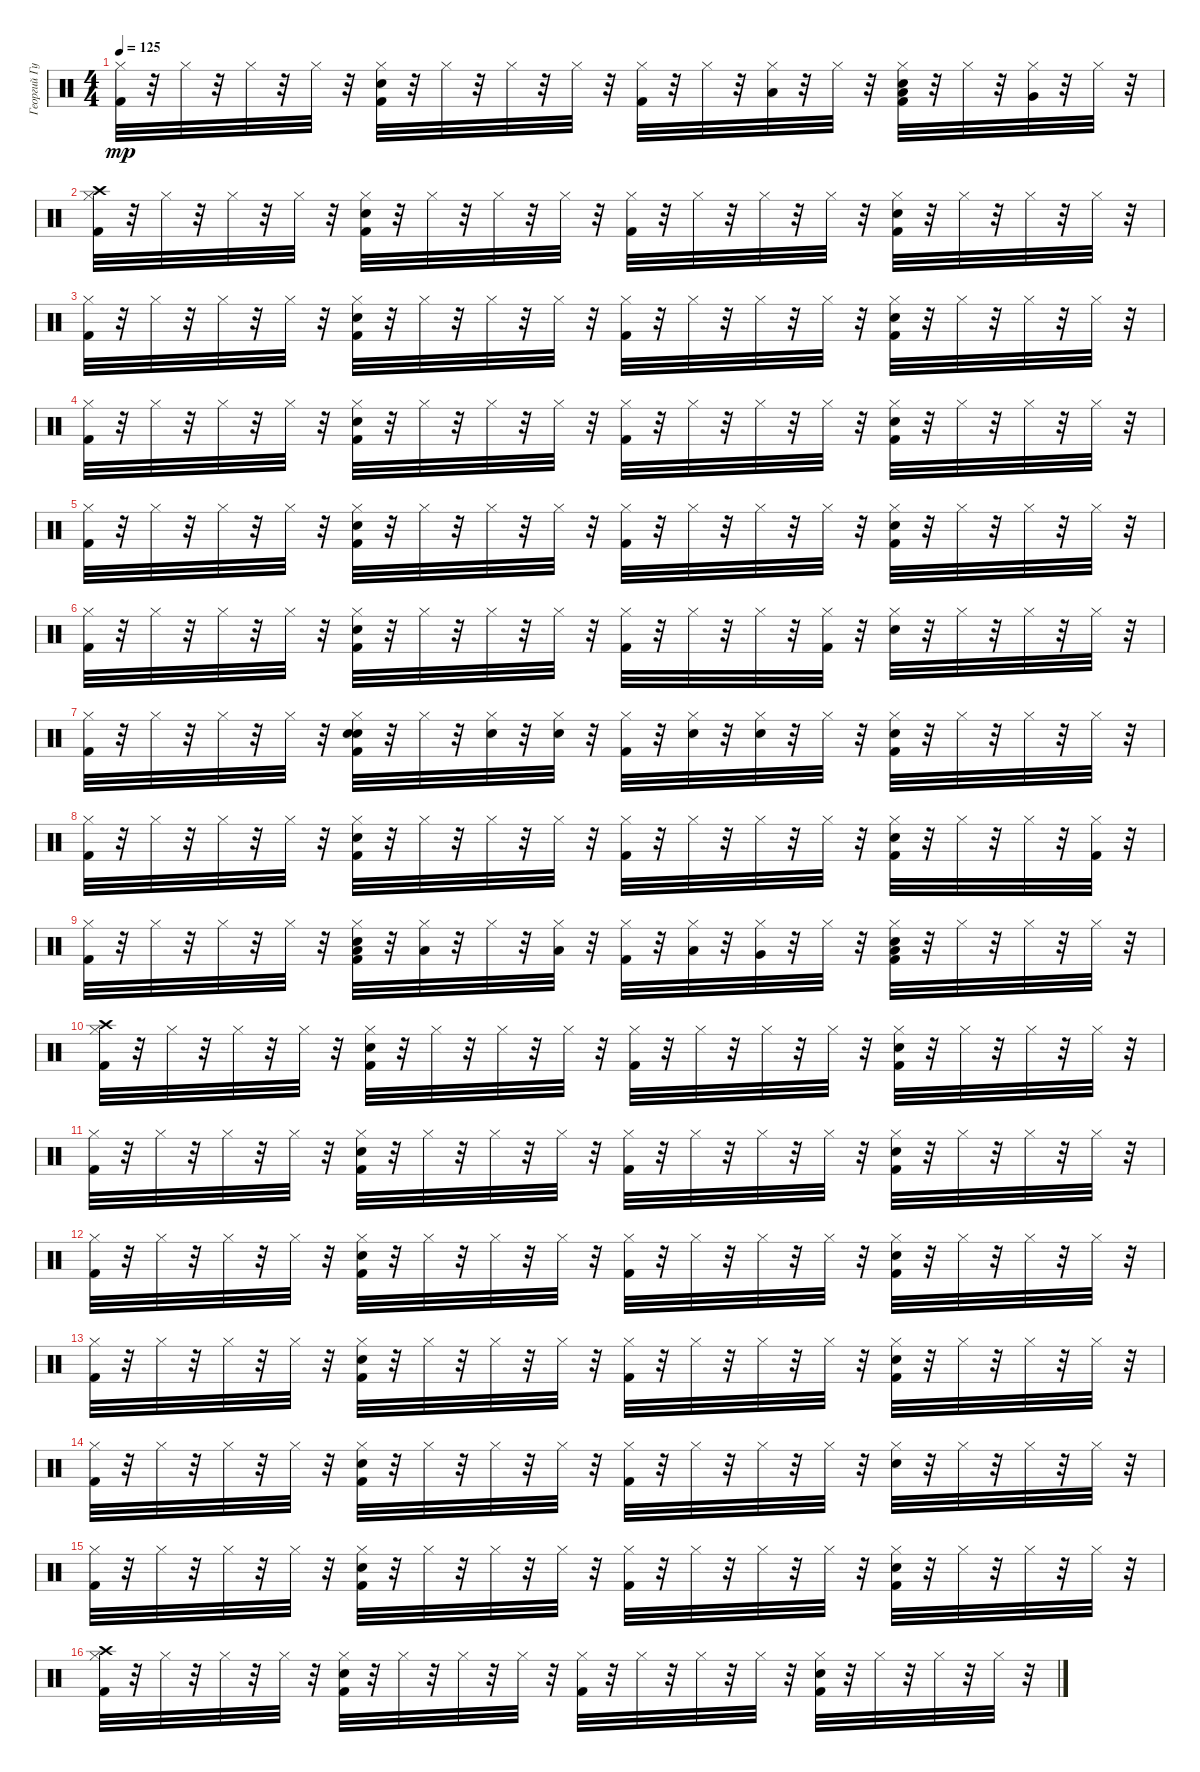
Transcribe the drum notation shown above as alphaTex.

\track ("Георгий Гурьянов" "Георгий Гу") {instrument percussion}
\staff {score}
\articulation defaults
\ts (4 4)
\tempo 125
\clef neutral
\ks c
("Kick (hit) 2" "Hi-Hat (closed)").32{dy mp} r.32 "Hi-Hat (closed)".32 r.32 "Hi-Hat (closed)".32 r.32 "Hi-Hat (closed)".32 r.32 ("Kick (hit) 2" "Snare (hit) 2" "Hi-Hat (closed)").32 r.32 "Hi-Hat (closed)".32 r.32 "Hi-Hat (closed)".32 r.32 "Hi-Hat (closed)".32 r.32 ("Kick (hit) 2" "Hi-Hat (closed)").32 r.32 "Hi-Hat (closed)".32 r.32 ("Low Tom (hit)" "Hi-Hat (closed)").32 r.32 "Hi-Hat (closed)".32 r.32 ("Low Tom (hit)" "Kick (hit) 2" "Snare (hit) 2" "Hi-Hat (closed)").32 r.32 "Hi-Hat (closed)".32 r.32 ("Very Low Tom (hit)" "Hi-Hat (closed)").32 r.32 "Hi-Hat (closed)".32 r.32 |
("Hi-Hat (closed)" "Kick (hit) 2" "Crash high (hit)").32 r.32 "Hi-Hat (closed)".32 r.32 "Hi-Hat (closed)".32 r.32 "Hi-Hat (closed)".32 r.32 ("Kick (hit) 2" "Hi-Hat (closed)" "Snare (hit) 2").32 r.32 "Hi-Hat (closed)".32 r.32 "Hi-Hat (closed)".32 r.32 "Hi-Hat (closed)".32 r.32 ("Hi-Hat (closed)" "Kick (hit) 2").32 r.32 "Hi-Hat (closed)".32 r.32 "Hi-Hat (closed)".32 r.32 "Hi-Hat (closed)".32 r.32 ("Kick (hit) 2" "Hi-Hat (closed)" "Snare (hit) 2").32 r.32 "Hi-Hat (closed)".32 r.32 "Hi-Hat (closed)".32 r.32 "Hi-Hat (closed)".32 r.32 |
("Kick (hit) 2" "Hi-Hat (closed)").32 r.32 "Hi-Hat (closed)".32 r.32 "Hi-Hat (closed)".32 r.32 "Hi-Hat (closed)".32 r.32 ("Kick (hit) 2" "Snare (hit) 2" "Hi-Hat (closed)").32 r.32 "Hi-Hat (closed)".32 r.32 "Hi-Hat (closed)".32 r.32 "Hi-Hat (closed)".32 r.32 ("Kick (hit) 2" "Hi-Hat (closed)").32 r.32 "Hi-Hat (closed)".32 r.32 "Hi-Hat (closed)".32 r.32 "Hi-Hat (closed)".32 r.32 ("Kick (hit) 2" "Snare (hit) 2" "Hi-Hat (closed)").32 r.32 "Hi-Hat (closed)".32 r.32 "Hi-Hat (closed)".32 r.32 "Hi-Hat (closed)".32 r.32 |
("Kick (hit) 2" "Hi-Hat (closed)").32 r.32 "Hi-Hat (closed)".32 r.32 "Hi-Hat (closed)".32 r.32 "Hi-Hat (closed)".32 r.32 ("Kick (hit) 2" "Snare (hit) 2" "Hi-Hat (closed)").32 r.32 "Hi-Hat (closed)".32 r.32 "Hi-Hat (closed)".32 r.32 "Hi-Hat (closed)".32 r.32 ("Kick (hit) 2" "Hi-Hat (closed)").32 r.32 "Hi-Hat (closed)".32 r.32 "Hi-Hat (closed)".32 r.32 "Hi-Hat (closed)".32 r.32 ("Kick (hit) 2" "Snare (hit) 2" "Hi-Hat (closed)").32 r.32 "Hi-Hat (closed)".32 r.32 "Hi-Hat (closed)".32 r.32 "Hi-Hat (closed)".32 r.32 |
("Kick (hit) 2" "Hi-Hat (closed)").32 r.32 "Hi-Hat (closed)".32 r.32 "Hi-Hat (closed)".32 r.32 "Hi-Hat (closed)".32 r.32 ("Kick (hit) 2" "Snare (hit) 2" "Hi-Hat (closed)").32 r.32 "Hi-Hat (closed)".32 r.32 "Hi-Hat (closed)".32 r.32 "Hi-Hat (closed)".32 r.32 ("Kick (hit) 2" "Hi-Hat (closed)").32 r.32 "Hi-Hat (closed)".32 r.32 "Hi-Hat (closed)".32 r.32 "Hi-Hat (closed)".32 r.32 ("Kick (hit) 2" "Snare (hit) 2" "Hi-Hat (closed)").32 r.32 "Hi-Hat (closed)".32 r.32 "Hi-Hat (closed)".32 r.32 "Hi-Hat (closed)".32 r.32 |
("Kick (hit) 2" "Hi-Hat (closed)").32 r.32 "Hi-Hat (closed)".32 r.32 "Hi-Hat (closed)".32 r.32 "Hi-Hat (closed)".32 r.32 ("Kick (hit) 2" "Snare (hit) 2" "Hi-Hat (closed)").32 r.32 "Hi-Hat (closed)".32 r.32 "Hi-Hat (closed)".32 r.32 "Hi-Hat (closed)".32 r.32 ("Kick (hit) 2" "Hi-Hat (closed)").32 r.32 "Hi-Hat (closed)".32 r.32 "Hi-Hat (closed)".32 r.32 ("Kick (hit) 2" "Hi-Hat (closed)").32 r.32 ("Snare (hit) 2" "Hi-Hat (closed)").32 r.32 "Hi-Hat (closed)".32 r.32 "Hi-Hat (closed)".32 r.32 "Hi-Hat (closed)".32 r.32 |
("Kick (hit) 2" "Hi-Hat (closed)").32 r.32 "Hi-Hat (closed)".32 r.32 "Hi-Hat (closed)".32 r.32 "Hi-Hat (closed)".32 r.32 ("Hand Clap (hit)" "Kick (hit) 2" "Snare (hit) 2" "Hi-Hat (closed)").32 r.32 "Hi-Hat (closed)".32 r.32 ("Hand Clap (hit)" "Hi-Hat (closed)").32 r.32 ("Hand Clap (hit)" "Hi-Hat (closed)").32 r.32 ("Kick (hit) 2" "Hi-Hat (closed)").32 r.32 ("Hand Clap (hit)" "Hi-Hat (closed)").32 r.32 ("Hand Clap (hit)" "Hi-Hat (closed)").32 r.32 "Hi-Hat (closed)".32 r.32 ("Kick (hit) 2" "Snare (hit) 2" "Hi-Hat (closed)").32 r.32 "Hi-Hat (closed)".32 r.32 "Hi-Hat (closed)".32 r.32 "Hi-Hat (closed)".32 r.32 |
("Kick (hit) 2" "Hi-Hat (closed)").32 r.32 "Hi-Hat (closed)".32 r.32 "Hi-Hat (closed)".32 r.32 "Hi-Hat (closed)".32 r.32 ("Kick (hit) 2" "Snare (hit) 2" "Hi-Hat (closed)").32 r.32 "Hi-Hat (closed)".32 r.32 "Hi-Hat (closed)".32 r.32 "Hi-Hat (closed)".32 r.32 ("Kick (hit) 2" "Hi-Hat (closed)").32 r.32 "Hi-Hat (closed)".32 r.32 "Hi-Hat (closed)".32 r.32 "Hi-Hat (closed)".32 r.32 ("Kick (hit) 2" "Snare (hit) 2" "Hi-Hat (closed)").32 r.32 "Hi-Hat (closed)".32 r.32 "Hi-Hat (closed)".32 r.32 ("Kick (hit) 2" "Hi-Hat (closed)").32 r.32 |
("Kick (hit) 2" "Hi-Hat (closed)").32 r.32 "Hi-Hat (closed)".32 r.32 "Hi-Hat (closed)".32 r.32 "Hi-Hat (closed)".32 r.32 ("Kick (hit) 2" "Snare (hit) 2" "Hi-Hat (closed)" "Low Tom (hit)").32 r.32 ("Hi-Hat (closed)" "Low Tom (hit)").32 r.32 "Hi-Hat (closed)".32 r.32 ("Low Tom (hit)" "Hi-Hat (closed)").32 r.32 ("Kick (hit) 2" "Hi-Hat (closed)").32 r.32 ("Low Tom (hit)" "Hi-Hat (closed)").32 r.32 ("Very Low Tom (hit)" "Hi-Hat (closed)").32 r.32 "Hi-Hat (closed)".32 r.32 ("Kick (hit) 2" "Low Floor Tom (hit)" "Snare (hit) 2" "Hi-Hat (closed)").32 r.32 "Hi-Hat (closed)".32 r.32 "Hi-Hat (closed)".32 r.32 "Hi-Hat (closed)".32 r.32 |
("Hi-Hat (closed)" "Kick (hit) 2" "Crash high (hit)").32 r.32 "Hi-Hat (closed)".32 r.32 "Hi-Hat (closed)".32 r.32 "Hi-Hat (closed)".32 r.32 ("Kick (hit) 2" "Hi-Hat (closed)" "Snare (hit) 2").32 r.32 "Hi-Hat (closed)".32 r.32 "Hi-Hat (closed)".32 r.32 "Hi-Hat (closed)".32 r.32 ("Hi-Hat (closed)" "Kick (hit) 2").32 r.32 "Hi-Hat (closed)".32 r.32 "Hi-Hat (closed)".32 r.32 "Hi-Hat (closed)".32 r.32 ("Kick (hit) 2" "Hi-Hat (closed)" "Snare (hit) 2").32 r.32 "Hi-Hat (closed)".32 r.32 "Hi-Hat (closed)".32 r.32 "Hi-Hat (closed)".32 r.32 |
("Kick (hit) 2" "Hi-Hat (closed)").32 r.32 "Hi-Hat (closed)".32 r.32 "Hi-Hat (closed)".32 r.32 "Hi-Hat (closed)".32 r.32 ("Kick (hit) 2" "Snare (hit) 2" "Hi-Hat (closed)").32 r.32 "Hi-Hat (closed)".32 r.32 "Hi-Hat (closed)".32 r.32 "Hi-Hat (closed)".32 r.32 ("Kick (hit) 2" "Hi-Hat (closed)").32 r.32 "Hi-Hat (closed)".32 r.32 "Hi-Hat (closed)".32 r.32 "Hi-Hat (closed)".32 r.32 ("Kick (hit) 2" "Snare (hit) 2" "Hi-Hat (closed)").32 r.32 "Hi-Hat (closed)".32 r.32 "Hi-Hat (closed)".32 r.32 "Hi-Hat (closed)".32 r.32 |
("Kick (hit) 2" "Hi-Hat (closed)").32 r.32 "Hi-Hat (closed)".32 r.32 "Hi-Hat (closed)".32 r.32 "Hi-Hat (closed)".32 r.32 ("Kick (hit) 2" "Snare (hit) 2" "Hi-Hat (closed)").32 r.32 "Hi-Hat (closed)".32 r.32 "Hi-Hat (closed)".32 r.32 "Hi-Hat (closed)".32 r.32 ("Kick (hit) 2" "Hi-Hat (closed)").32 r.32 "Hi-Hat (closed)".32 r.32 "Hi-Hat (closed)".32 r.32 "Hi-Hat (closed)".32 r.32 ("Kick (hit) 2" "Snare (hit) 2" "Hi-Hat (closed)").32 r.32 "Hi-Hat (closed)".32 r.32 "Hi-Hat (closed)".32 r.32 "Hi-Hat (closed)".32 r.32 |
("Kick (hit) 2" "Hi-Hat (closed)").32 r.32 "Hi-Hat (closed)".32 r.32 "Hi-Hat (closed)".32 r.32 "Hi-Hat (closed)".32 r.32 ("Kick (hit) 2" "Snare (hit) 2" "Hi-Hat (closed)").32 r.32 "Hi-Hat (closed)".32 r.32 "Hi-Hat (closed)".32 r.32 "Hi-Hat (closed)".32 r.32 ("Kick (hit) 2" "Hi-Hat (closed)").32 r.32 "Hi-Hat (closed)".32 r.32 "Hi-Hat (closed)".32 r.32 "Hi-Hat (closed)".32 r.32 ("Kick (hit) 2" "Snare (hit) 2" "Hi-Hat (closed)").32 r.32 "Hi-Hat (closed)".32 r.32 "Hi-Hat (closed)".32 r.32 "Hi-Hat (closed)".32 r.32 |
("Kick (hit) 2" "Hi-Hat (closed)").32 r.32 "Hi-Hat (closed)".32 r.32 "Hi-Hat (closed)".32 r.32 "Hi-Hat (closed)".32 r.32 ("Kick (hit) 2" "Snare (hit) 2" "Hi-Hat (closed)").32 r.32 "Hi-Hat (closed)".32 r.32 "Hi-Hat (closed)".32 r.32 "Hi-Hat (closed)".32 r.32 ("Kick (hit) 2" "Hi-Hat (closed)").32 r.32 "Hi-Hat (closed)".32 r.32 "Hi-Hat (closed)".32 r.32 "Hi-Hat (closed)".32 r.32 ("Snare (hit) 2" "Hi-Hat (closed)").32 r.32 "Hi-Hat (closed)".32 r.32 "Hi-Hat (closed)".32 r.32 "Hi-Hat (closed)".32 r.32 |
("Kick (hit) 2" "Hi-Hat (closed)").32 r.32 "Hi-Hat (closed)".32 r.32 "Hi-Hat (closed)".32 r.32 "Hi-Hat (closed)".32 r.32 ("Kick (hit) 2" "Snare (hit) 2" "Hi-Hat (closed)").32 r.32 "Hi-Hat (closed)".32 r.32 "Hi-Hat (closed)".32 r.32 "Hi-Hat (closed)".32 r.32 ("Kick (hit) 2" "Hi-Hat (closed)").32 r.32 "Hi-Hat (closed)".32 r.32 "Hi-Hat (closed)".32 r.32 "Hi-Hat (closed)".32 r.32 ("Kick (hit) 2" "Snare (hit) 2" "Hi-Hat (closed)").32 r.32 "Hi-Hat (closed)".32 r.32 "Hi-Hat (closed)".32 r.32 "Hi-Hat (closed)".32 r.32 |
("Crash high (hit)" "Kick (hit) 2" "Hi-Hat (closed)").32 r.32 "Hi-Hat (closed)".32 r.32 "Hi-Hat (closed)".32 r.32 "Hi-Hat (closed)".32 r.32 ("Kick (hit) 2" "Snare (hit) 2" "Hi-Hat (closed)").32 r.32 "Hi-Hat (closed)".32 r.32 "Hi-Hat (closed)".32 r.32 "Hi-Hat (closed)".32 r.32 ("Kick (hit) 2" "Hi-Hat (closed)").32 r.32 "Hi-Hat (closed)".32 r.32 "Hi-Hat (closed)".32 r.32 "Hi-Hat (closed)".32 r.32 ("Kick (hit) 2" "Snare (hit) 2" "Hi-Hat (closed)").32 r.32 "Hi-Hat (closed)".32 r.32 "Hi-Hat (closed)".32 r.32 "Hi-Hat (closed)".32 r.32
